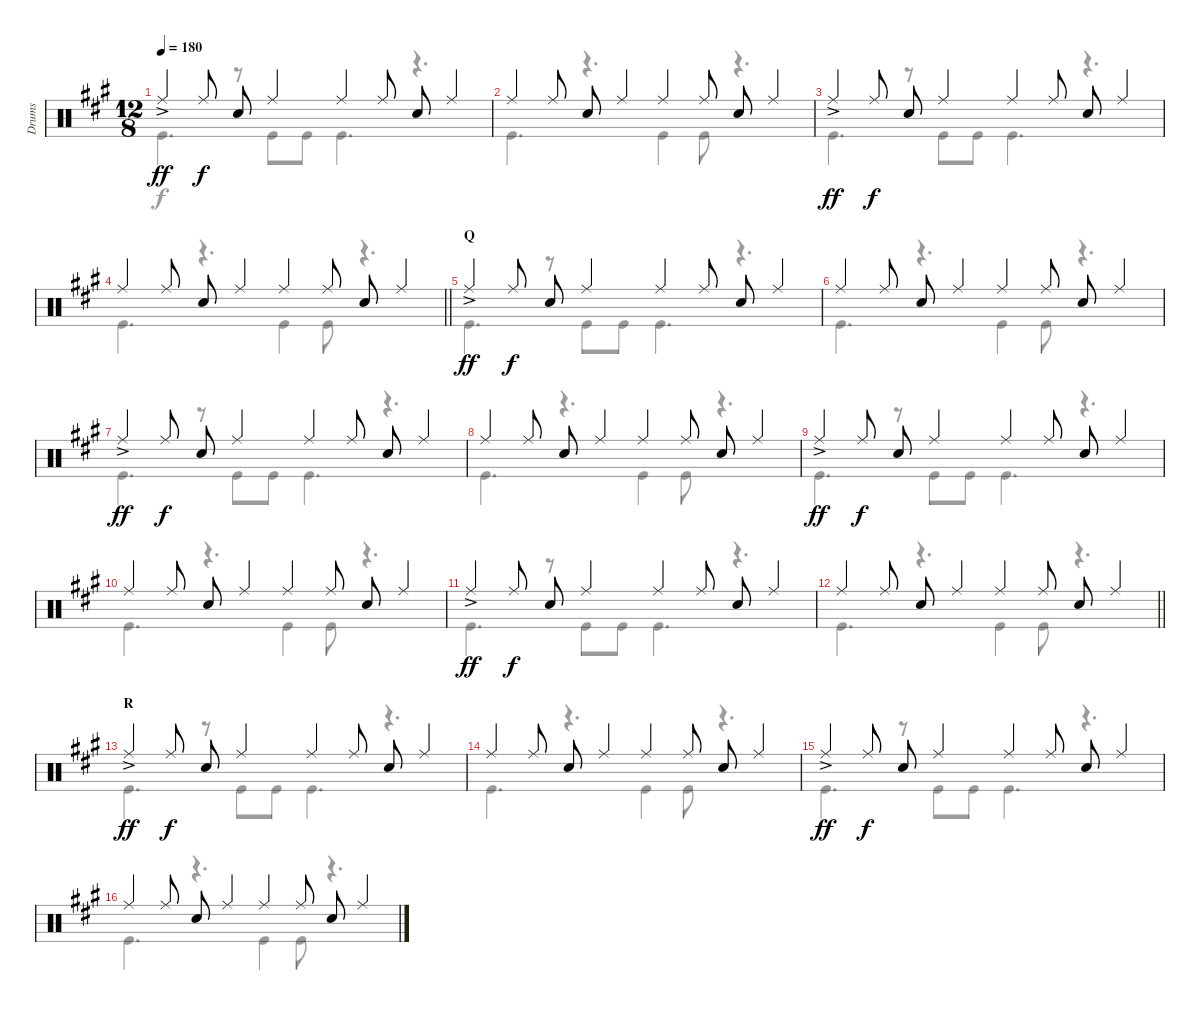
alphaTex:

\track ("Drums" "Drums") {instrument percussion}
\staff {score}
\articulation defaults
\voice
\ts (12 8)
\tempo 180
\clef neutral
\ks a "Ride (middle)"{ac}.4{dy ff} "Ride (middle)".8{dy f} "Snare (hit) 2".8 "Ride (middle)".4 "Ride (middle)".4 "Ride (middle)".8 "Snare (hit) 2".8 "Ride (middle)".4
|
"Ride (middle)".4 "Ride (middle)".8 "Snare (hit) 2".8 "Ride (middle)".4 "Ride (middle)".4 "Ride (middle)".8 "Snare (hit) 2".8 "Ride (middle)".4 |
"Ride (middle)"{ac}.4{dy ff} "Ride (middle)".8{dy f} "Snare (hit) 2".8 "Ride (middle)".4 "Ride (middle)".4 "Ride (middle)".8 "Snare (hit) 2".8 "Ride (middle)".4 |
\barLineRight lightlight "Ride (middle)".4 "Ride (middle)".8 "Snare (hit) 2".8 "Ride (middle)".4 "Ride (middle)".4 "Ride (middle)".8 "Snare (hit) 2".8 "Ride (middle)".4
|
\section ("" "Q")
"Ride (middle)"{ac}.4{dy ff} "Ride (middle)".8{dy f} "Snare (hit) 2".8 "Ride (middle)".4 "Ride (middle)".4 "Ride (middle)".8 "Snare (hit) 2".8 "Ride (middle)".4 |
"Ride (middle)".4 "Ride (middle)".8 "Snare (hit) 2".8 "Ride (middle)".4 "Ride (middle)".4 "Ride (middle)".8 "Snare (hit) 2".8 "Ride (middle)".4 |
"Ride (middle)"{ac}.4{dy ff} "Ride (middle)".8{dy f} "Snare (hit) 2".8 "Ride (middle)".4 "Ride (middle)".4 "Ride (middle)".8 "Snare (hit) 2".8 "Ride (middle)".4 |
"Ride (middle)".4 "Ride (middle)".8 "Snare (hit) 2".8 "Ride (middle)".4 "Ride (middle)".4 "Ride (middle)".8 "Snare (hit) 2".8 "Ride (middle)".4 |
"Ride (middle)"{ac}.4{dy ff} "Ride (middle)".8{dy f} "Snare (hit) 2".8 "Ride (middle)".4 "Ride (middle)".4 "Ride (middle)".8 "Snare (hit) 2".8 "Ride (middle)".4 |
"Ride (middle)".4 "Ride (middle)".8 "Snare (hit) 2".8 "Ride (middle)".4 "Ride (middle)".4 "Ride (middle)".8 "Snare (hit) 2".8 "Ride (middle)".4 |
"Ride (middle)"{ac}.4{dy ff} "Ride (middle)".8{dy f} "Snare (hit) 2".8 "Ride (middle)".4 "Ride (middle)".4 "Ride (middle)".8 "Snare (hit) 2".8 "Ride (middle)".4 |
\barLineRight lightlight "Ride (middle)".4 "Ride (middle)".8 "Snare (hit) 2".8 "Ride (middle)".4 "Ride (middle)".4 "Ride (middle)".8 "Snare (hit) 2".8 "Ride (middle)".4
|
\section ("" "R")
"Ride (middle)"{ac}.4{dy ff} "Ride (middle)".8{dy f} "Snare (hit) 2".8 "Ride (middle)".4 "Ride (middle)".4 "Ride (middle)".8 "Snare (hit) 2".8 "Ride (middle)".4 |
"Ride (middle)".4 "Ride (middle)".8 "Snare (hit) 2".8 "Ride (middle)".4 "Ride (middle)".4 "Ride (middle)".8 "Snare (hit) 2".8 "Ride (middle)".4 |
"Ride (middle)"{ac}.4{dy ff} "Ride (middle)".8{dy f} "Snare (hit) 2".8 "Ride (middle)".4 "Ride (middle)".4 "Ride (middle)".8 "Snare (hit) 2".8 "Ride (middle)".4 |
"Ride (middle)".4 "Ride (middle)".8 "Snare (hit) 2".8 "Ride (middle)".4 "Ride (middle)".4 "Ride (middle)".8 "Snare (hit) 2".8 "Ride (middle)".4
\voice
\clef neutral
\ottava regular
\simile none
\ks a "Kick (hit)".4{d dy f}
r.8 "Kick (hit)".8 "Kick (hit)".8 "Kick (hit)".4{d} r.4{d} |
"Kick (hit)".4{d} r.4{d} "Kick (hit)".4 "Kick (hit)".8 r.4{d} |
"Kick (hit)".4{d} r.8 "Kick (hit)".8 "Kick (hit)".8 "Kick (hit)".4{d} r.4{d} |
\barLineRight lightlight "Kick (hit)".4{d}
r.4{d} "Kick (hit)".4 "Kick (hit)".8 r.4{d} |
"Kick (hit)".4{d} r.8 "Kick (hit)".8 "Kick (hit)".8 "Kick (hit)".4{d} r.4{d} |
"Kick (hit)".4{d} r.4{d} "Kick (hit)".4 "Kick (hit)".8 r.4{d} |
"Kick (hit)".4{d} r.8 "Kick (hit)".8 "Kick (hit)".8 "Kick (hit)".4{d} r.4{d} |
"Kick (hit)".4{d} r.4{d} "Kick (hit)".4 "Kick (hit)".8 r.4{d} |
"Kick (hit)".4{d} r.8 "Kick (hit)".8 "Kick (hit)".8 "Kick (hit)".4{d} r.4{d} |
"Kick (hit)".4{d} r.4{d} "Kick (hit)".4 "Kick (hit)".8 r.4{d} |
"Kick (hit)".4{d} r.8 "Kick (hit)".8 "Kick (hit)".8 "Kick (hit)".4{d} r.4{d} |
\barLineRight lightlight "Kick (hit)".4{d}
r.4{d} "Kick (hit)".4 "Kick (hit)".8 r.4{d} |
"Kick (hit)".4{d} r.8 "Kick (hit)".8 "Kick (hit)".8 "Kick (hit)".4{d} r.4{d} |
"Kick (hit)".4{d} r.4{d} "Kick (hit)".4 "Kick (hit)".8 r.4{d} |
"Kick (hit)".4{d} r.8 "Kick (hit)".8 "Kick (hit)".8 "Kick (hit)".4{d} r.4{d} |
"Kick (hit)".4{d} r.4{d} "Kick (hit)".4 "Kick (hit)".8 r.4{d}
